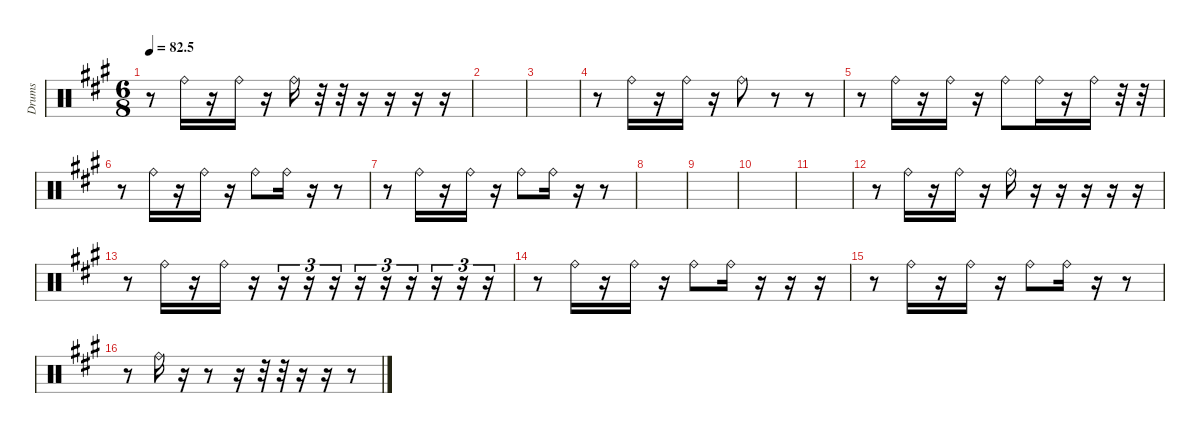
\defaultSystemsLayout 4
\hideDynamics
\bracketExtendMode nobrackets
\otherSystemsTrackNameOrientation horizontal
\track ("Raid" "Drums") {instrument percussion}
\staff {score}
\articulation defaults
\ts (6 8)
\tempo
82.5
\accidentals auto
\clef neutral
\ottava regular
\simile none
\scale
0.333333
\ks a
r.8{dy f} "Ride (bell)"{acc forcenatural}.16 r.16 "Ride (bell)"{acc forcenatural}.16 r.16 "Ride (bell)"{acc forcenatural}.16 r.32 r.32 r.16 r.16 r.16 r.16 |
\scale
0.333333 |
\scale
0.333333 |
\scale
0.333333 r.8 "Ride (bell)"{acc forcenatural}.16 r.16 "Ride (bell)"{acc forcenatural}.16 r.16 "Ride (bell)"{acc forcenatural}.8 r.8 r.8 |
\scale
0.333333 r.8 "Ride (bell)"{acc forcenatural}.16 r.16 "Ride (bell)"{acc forcenatural}.16 r.16 "Ride (bell)"{acc forcenatural}.8 "Ride (bell)"{acc forcenatural}.16 r.16 "Ride (bell)"{acc forcenatural}.16 r.32 r.32 |
\scale
0.333333 r.8 "Ride (bell)"{acc forcenatural}.16 r.16 "Ride (bell)"{acc forcenatural}.16 r.16 "Ride (bell)"{acc forcenatural}.8 "Ride (bell)"{acc forcenatural}.16 r.16 r.8 |
\scale
0.333333 r.8 "Ride (bell)"{acc forcenatural}.16 r.16 "Ride (bell)"{acc forcenatural}.16 r.16 "Ride (bell)"{acc forcenatural}.8 "Ride (bell)"{acc forcenatural}.16 r.16 r.8 |
\scale
0.333333 |
\scale
0.333333 |
\scale
0.333333 |
\scale
0.333333 |
\scale
0.333333 r.8 "Ride (bell)"{acc forcenatural}.16 r.16 "Ride (bell)"{acc forcenatural}.16 r.16 "Ride (bell)"{acc forcenatural}.16 r.16 r.16 r.16 r.16 r.16 |
\scale
0.333333 r.8 "Ride (bell)"{acc forcenatural}.16 r.16 "Ride (bell)"{acc forcenatural}.16 r.16 r.16{tu (3 2)} r.16{tu (3 2)} r.16{tu (3 2)} r.16{tu (3 2)} r.16{tu (3 2)} r.16{tu (3 2)} r.16{tu (3 2)} r.16{tu (3 2)} r.16{tu (3 2)} |
\scale
0.333333 r.8 "Ride (bell)"{acc forcenatural}.16 r.16 "Ride (bell)"{acc forcenatural}.16 r.16 "Ride (bell)"{acc forcenatural}.8 "Ride (bell)"{acc forcenatural}.16 r.16 r.16 r.16 |
\scale
0.333333 r.8 "Ride (bell)"{acc forcenatural}.16 r.16 "Ride (bell)"{acc forcenatural}.16 r.16 "Ride (bell)"{acc forcenatural}.8 "Ride (bell)"{acc forcenatural}.16 r.16 r.8 |
\scale
0.333333 r.8 "Ride (bell)"{acc forcenatural}.16 r.16 r.8 r.16 r.32 r.32 r.16 r.16 r.8
